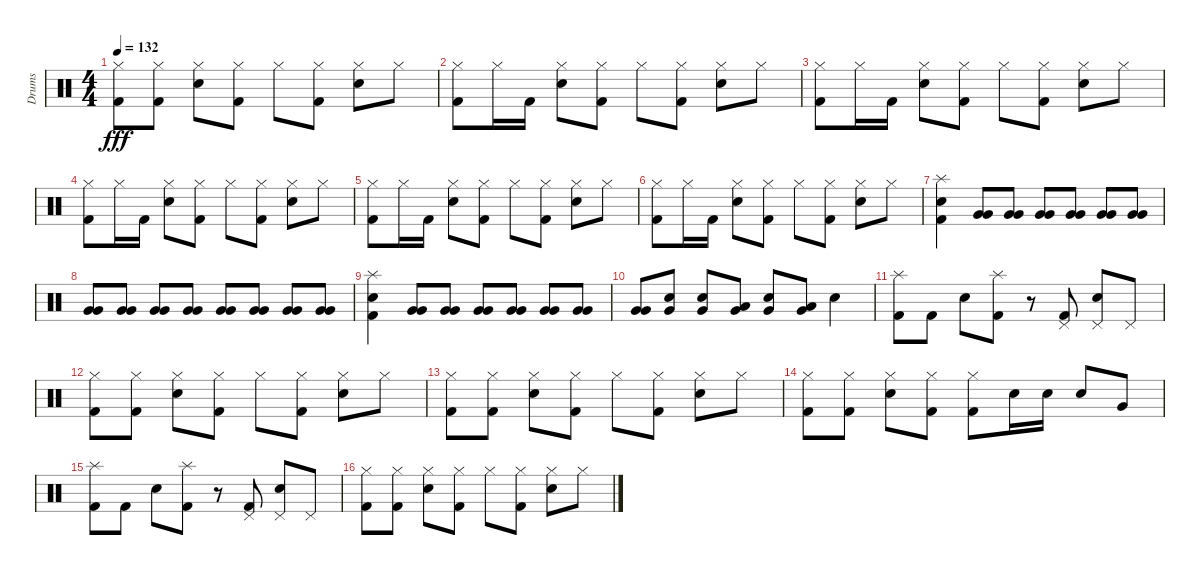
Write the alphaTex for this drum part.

\track ("Drums" "Drums") {instrument percussion}
\staff {score}
\articulation defaults
\ts (4 4)
\tempo 132
\clef neutral
\ks c
("Hi-Hat (closed)" "Kick (hit) 2").8{dy fff} ("Hi-Hat (closed)" "Kick (hit) 2").8 ("Hi-Hat (closed)" "Electric Snare (hit)").8 ("Hi-Hat (closed)" "Kick (hit) 2").8 "Hi-Hat (closed)".8 ("Hi-Hat (closed)" "Kick (hit) 2").8 ("Hi-Hat (closed)" "Electric Snare (hit)").8 "Hi-Hat (closed)".8 |
("Hi-Hat (closed)" "Kick (hit) 2").8 "Hi-Hat (closed)".16 "Kick (hit) 2".16 ("Hi-Hat (closed)" "Electric Snare (hit)").8 ("Hi-Hat (closed)" "Kick (hit) 2").8 "Hi-Hat (closed)".8 ("Kick (hit) 2" "Hi-Hat (closed)").8 ("Hi-Hat (closed)" "Electric Snare (hit)").8 "Hi-Hat (closed)".8 |
("Hi-Hat (closed)" "Kick (hit) 2").8 "Hi-Hat (closed)".16 "Kick (hit) 2".16 ("Hi-Hat (closed)" "Electric Snare (hit)").8 ("Hi-Hat (closed)" "Kick (hit) 2").8 "Hi-Hat (closed)".8 ("Kick (hit) 2" "Hi-Hat (closed)").8 ("Hi-Hat (closed)" "Electric Snare (hit)").8 "Hi-Hat (closed)".8 |
("Hi-Hat (closed)" "Kick (hit) 2").8 "Hi-Hat (closed)".16 "Kick (hit) 2".16 ("Hi-Hat (closed)" "Electric Snare (hit)").8 ("Hi-Hat (closed)" "Kick (hit) 2").8 "Hi-Hat (closed)".8 ("Kick (hit) 2" "Hi-Hat (closed)").8 ("Hi-Hat (closed)" "Electric Snare (hit)").8 "Hi-Hat (closed)".8 |
("Hi-Hat (closed)" "Kick (hit) 2").8 "Hi-Hat (closed)".16 "Kick (hit) 2".16 ("Hi-Hat (closed)" "Electric Snare (hit)").8 ("Hi-Hat (closed)" "Kick (hit) 2").8 "Hi-Hat (closed)".8 ("Kick (hit) 2" "Hi-Hat (closed)").8 ("Hi-Hat (closed)" "Electric Snare (hit)").8 "Hi-Hat (closed)".8 |
("Hi-Hat (closed)" "Kick (hit) 2").8 "Hi-Hat (closed)".16 "Kick (hit) 2".16 ("Hi-Hat (closed)" "Electric Snare (hit)").8 ("Hi-Hat (closed)" "Kick (hit) 2").8 "Hi-Hat (closed)".8 ("Kick (hit) 2" "Hi-Hat (closed)").8 ("Hi-Hat (closed)" "Electric Snare (hit)").8 "Hi-Hat (closed)".8 |
("Kick (hit) 2" "Electric Snare (hit)" "Splash (hit)").4 ("Very Low Tom (hit)" "Very Low Tom (hit)").8 ("Very Low Tom (hit)" "Very Low Tom (hit)").8 ("Very Low Tom (hit)" "Very Low Tom (hit)").8 ("Very Low Tom (hit)" "Very Low Tom (hit)").8 ("Very Low Tom (hit)" "Very Low Tom (hit)").8 ("Very Low Tom (hit)" "Very Low Tom (hit)").8 |
("Very Low Tom (hit)" "Very Low Tom (hit)").8 ("Very Low Tom (hit)" "Very Low Tom (hit)").8 ("Very Low Tom (hit)" "Very Low Tom (hit)").8 ("Very Low Tom (hit)" "Very Low Tom (hit)").8 ("Very Low Tom (hit)" "Very Low Tom (hit)").8 ("Very Low Tom (hit)" "Very Low Tom (hit)").8 ("Very Low Tom (hit)" "Very Low Tom (hit)").8 ("Very Low Tom (hit)" "Very Low Tom (hit)").8 |
("Electric Snare (hit)" "Splash (hit)" "Kick (hit) 2").4 ("Very Low Tom (hit)" "Very Low Tom (hit)").8 ("Very Low Tom (hit)" "Very Low Tom (hit)").8 ("Very Low Tom (hit)" "Very Low Tom (hit)").8 ("Very Low Tom (hit)" "Very Low Tom (hit)").8 ("Very Low Tom (hit)" "Very Low Tom (hit)").8 ("Very Low Tom (hit)" "Very Low Tom (hit)").8 |
("Very Low Tom (hit)" "Very Low Tom (hit)").8 ("Very Low Tom (hit)" "Electric Snare (hit)").8 ("Very Low Tom (hit)" "Electric Snare (hit)").8 ("Low Floor Tom (hit)" "Very Low Tom (hit)").8 ("Electric Snare (hit)" "Very Low Tom (hit)").8 ("Low Floor Tom (hit)" "Very Low Tom (hit)").8 "Electric Snare (hit)".4 |
("Kick (hit) 2" "Splash (hit)").8 "Kick (hit) 2".8 "Electric Snare (hit)".8 ("Splash (hit)" "Kick (hit) 2").8 r.8 ("Kick (hit) 2" "Pedal Hi-Hat (hit)").8 ("Electric Snare (hit)" "Pedal Hi-Hat (hit)").8 "Pedal Hi-Hat (hit)".8 |
("Hi-Hat (closed)" "Kick (hit) 2").8 ("Hi-Hat (closed)" "Kick (hit) 2").8 ("Hi-Hat (closed)" "Electric Snare (hit)").8 ("Hi-Hat (closed)" "Kick (hit) 2").8 "Hi-Hat (closed)".8 ("Hi-Hat (closed)" "Kick (hit) 2").8 ("Hi-Hat (closed)" "Electric Snare (hit)").8 "Hi-Hat (closed)".8 |
("Hi-Hat (closed)" "Kick (hit) 2").8 ("Hi-Hat (closed)" "Kick (hit) 2").8 ("Hi-Hat (closed)" "Electric Snare (hit)").8 ("Hi-Hat (closed)" "Kick (hit) 2").8 "Hi-Hat (closed)".8 ("Hi-Hat (closed)" "Kick (hit) 2").8 ("Hi-Hat (closed)" "Electric Snare (hit)").8 "Hi-Hat (closed)".8 |
("Hi-Hat (closed)" "Kick (hit) 2").8 ("Hi-Hat (closed)" "Kick (hit) 2").8 ("Hi-Hat (closed)" "Electric Snare (hit)").8 ("Hi-Hat (closed)" "Kick (hit) 2").8 ("Kick (hit) 2" "Hi-Hat (closed)").8 "Electric Snare (hit)".16 "Electric Snare (hit)".16 "Electric Snare (hit)".8 "Very Low Tom (hit)".8 |
("Kick (hit) 2" "Splash (hit)").8 "Kick (hit) 2".8 "Electric Snare (hit)".8 ("Splash (hit)" "Kick (hit) 2").8 r.8 ("Kick (hit) 2" "Pedal Hi-Hat (hit)").8 ("Electric Snare (hit)" "Pedal Hi-Hat (hit)").8 "Pedal Hi-Hat (hit)".8 |
("Hi-Hat (closed)" "Kick (hit) 2").8 ("Hi-Hat (closed)" "Kick (hit) 2").8 ("Hi-Hat (closed)" "Electric Snare (hit)").8 ("Hi-Hat (closed)" "Kick (hit) 2").8 "Hi-Hat (closed)".8 ("Hi-Hat (closed)" "Kick (hit) 2").8 ("Hi-Hat (closed)" "Electric Snare (hit)").8 "Hi-Hat (closed)".8
